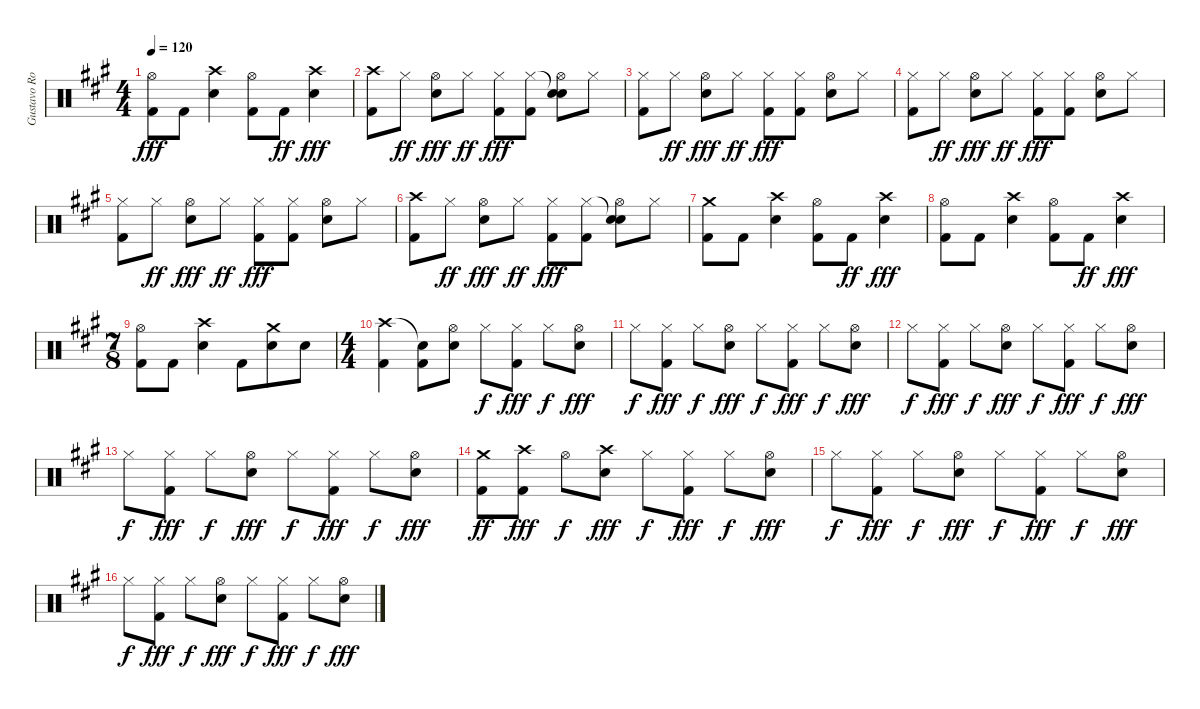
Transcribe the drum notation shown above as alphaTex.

\track ("Gustavo Rowek" "Gustavo Ro") {instrument percussion}
\staff {score}
\articulation defaults
\ts (4 4)
\tempo 120
\clef neutral
\ks a
("Hi-Hat (open)" "Kick (hit) 2").8{dy fff} "Kick (hit) 2".8 ("Crash high (hit)" "Snare (hit) 2").4 ("Hi-Hat (open)" "Kick (hit) 2").8 "Kick (hit) 2".8{dy ff} ("Crash high (hit)" "Snare (hit) 2").4{dy fff} |
("Crash high (hit)" "Kick (hit) 2").8 "Hi-Hat (closed)".8{dy ff} ("Hi-Hat (open)" "Snare (hit) 2").8{dy fff} "Hi-Hat (closed)".8{dy ff} ("Hi-Hat (closed)" "Kick (hit) 2").8{dy fff} ("Hi-Hat (closed)" "Kick (hit) 2").8 ("Snare (hit)"{t} "Hi-Hat (open)" "Snare (hit) 2").8 "Hi-Hat (closed)".8 |
("Hi-Hat (closed)" "Kick (hit) 2").8 "Hi-Hat (closed)".8{dy ff} ("Hi-Hat (open)" "Snare (hit) 2").8{dy fff} "Hi-Hat (closed)".8{dy ff} ("Hi-Hat (closed)" "Kick (hit) 2").8{dy fff} ("Hi-Hat (closed)" "Kick (hit) 2").8 ("Hi-Hat (open)" "Snare (hit) 2").8 "Hi-Hat (closed)".8 |
("Hi-Hat (closed)" "Kick (hit) 2").8 "Hi-Hat (closed)".8{dy ff} ("Hi-Hat (open)" "Snare (hit) 2").8{dy fff} "Hi-Hat (closed)".8{dy ff} ("Hi-Hat (closed)" "Kick (hit) 2").8{dy fff} ("Hi-Hat (closed)" "Kick (hit) 2").8 ("Hi-Hat (open)" "Snare (hit) 2").8 "Hi-Hat (closed)".8 |
("Hi-Hat (closed)" "Kick (hit) 2").8 "Hi-Hat (closed)".8{dy ff} ("Hi-Hat (open)" "Snare (hit) 2").8{dy fff} "Hi-Hat (closed)".8{dy ff} ("Hi-Hat (closed)" "Kick (hit) 2").8{dy fff} ("Hi-Hat (closed)" "Kick (hit) 2").8 ("Hi-Hat (open)" "Snare (hit) 2").8 "Hi-Hat (closed)".8 |
("Crash high (hit)" "Kick (hit) 2").8 "Hi-Hat (closed)".8{dy ff} ("Hi-Hat (open)" "Snare (hit) 2").8{dy fff} "Hi-Hat (closed)".8{dy ff} ("Hi-Hat (closed)" "Kick (hit) 2").8{dy fff} ("Hi-Hat (closed)" "Kick (hit) 2").8 ("Snare (hit)"{t} "Hi-Hat (open)" "Snare (hit) 2").8 "Hi-Hat (closed)".8 |
("Crash medium (hit)" "Kick (hit) 2").8 "Kick (hit) 2".8 ("Crash high (hit)" "Snare (hit) 2").4 ("Hi-Hat (open)" "Kick (hit) 2").8 "Kick (hit) 2".8{dy ff} ("Crash high (hit)" "Snare (hit) 2").4{dy fff} |
("Hi-Hat (open)" "Kick (hit) 2").8 "Kick (hit) 2".8 ("Crash high (hit)" "Snare (hit) 2").4 ("Hi-Hat (open)" "Kick (hit) 2").8 "Kick (hit) 2".8{dy ff} ("Crash high (hit)" "Snare (hit) 2").4{dy fff} |
\ts (7 8)
("Hi-Hat (open)" "Kick (hit) 2").8 "Kick (hit) 2".8 ("Crash high (hit)" "Snare (hit) 2").4 "Kick (hit) 2".8 ("Crash medium (hit)" "Snare (hit) 2").8 "Snare (hit) 2".8 |
\ts (4 4)
("Crash high (hit)" "Kick (hit) 2").4 ("Snare (hit)"{t} "Kick (hit) 2").8 ("Hi-Hat (open)" "Snare (hit) 2").8 "Hi-Hat (closed)".8{dy f} ("Hi-Hat (closed)" "Kick (hit) 2").8{dy fff} "Hi-Hat (closed)".8{dy f} ("Hi-Hat (open)" "Snare (hit) 2").8{dy fff} |
"Hi-Hat (closed)".8{dy f} ("Hi-Hat (closed)" "Kick (hit) 2").8{dy fff} "Hi-Hat (closed)".8{dy f} ("Hi-Hat (open)" "Snare (hit) 2").8{dy fff} "Hi-Hat (closed)".8{dy f} ("Hi-Hat (closed)" "Kick (hit) 2").8{dy fff} "Hi-Hat (closed)".8{dy f} ("Hi-Hat (open)" "Snare (hit) 2").8{dy fff} |
"Hi-Hat (closed)".8{dy f} ("Hi-Hat (closed)" "Kick (hit) 2").8{dy fff} "Hi-Hat (closed)".8{dy f} ("Hi-Hat (open)" "Snare (hit) 2").8{dy fff} "Hi-Hat (closed)".8{dy f} ("Hi-Hat (closed)" "Kick (hit) 2").8{dy fff} "Hi-Hat (closed)".8{dy f} ("Hi-Hat (open)" "Snare (hit) 2").8{dy fff} |
"Hi-Hat (closed)".8{dy f} ("Hi-Hat (closed)" "Kick (hit) 2").8{dy fff} "Hi-Hat (closed)".8{dy f} ("Hi-Hat (open)" "Snare (hit) 2").8{dy fff} "Hi-Hat (closed)".8{dy f} ("Hi-Hat (closed)" "Kick (hit) 2").8{dy fff} "Hi-Hat (closed)".8{dy f} ("Hi-Hat (open)" "Snare (hit) 2").8{dy fff} |
("Crash medium (hit)" "Kick (hit) 2").8{dy ff} ("Crash high (hit)" "Kick (hit) 2").8{dy fff} "Hi-Hat (open)".8{dy f} ("Crash high (hit)" "Snare (hit) 2").8{dy fff} "Hi-Hat (closed)".8{dy f} ("Hi-Hat (closed)" "Kick (hit) 2").8{dy fff} "Hi-Hat (closed)".8{dy f} ("Hi-Hat (open)" "Snare (hit) 2").8{dy fff} |
"Hi-Hat (closed)".8{dy f} ("Hi-Hat (closed)" "Kick (hit) 2").8{dy fff} "Hi-Hat (closed)".8{dy f} ("Hi-Hat (open)" "Snare (hit) 2").8{dy fff} "Hi-Hat (closed)".8{dy f} ("Hi-Hat (closed)" "Kick (hit) 2").8{dy fff} "Hi-Hat (closed)".8{dy f} ("Hi-Hat (open)" "Snare (hit) 2").8{dy fff} |
"Hi-Hat (closed)".8{dy f} ("Hi-Hat (closed)" "Kick (hit) 2").8{dy fff} "Hi-Hat (closed)".8{dy f} ("Hi-Hat (open)" "Snare (hit) 2").8{dy fff} "Hi-Hat (closed)".8{dy f} ("Hi-Hat (closed)" "Kick (hit) 2").8{dy fff} "Hi-Hat (closed)".8{dy f} ("Hi-Hat (open)" "Snare (hit) 2").8{dy fff}
